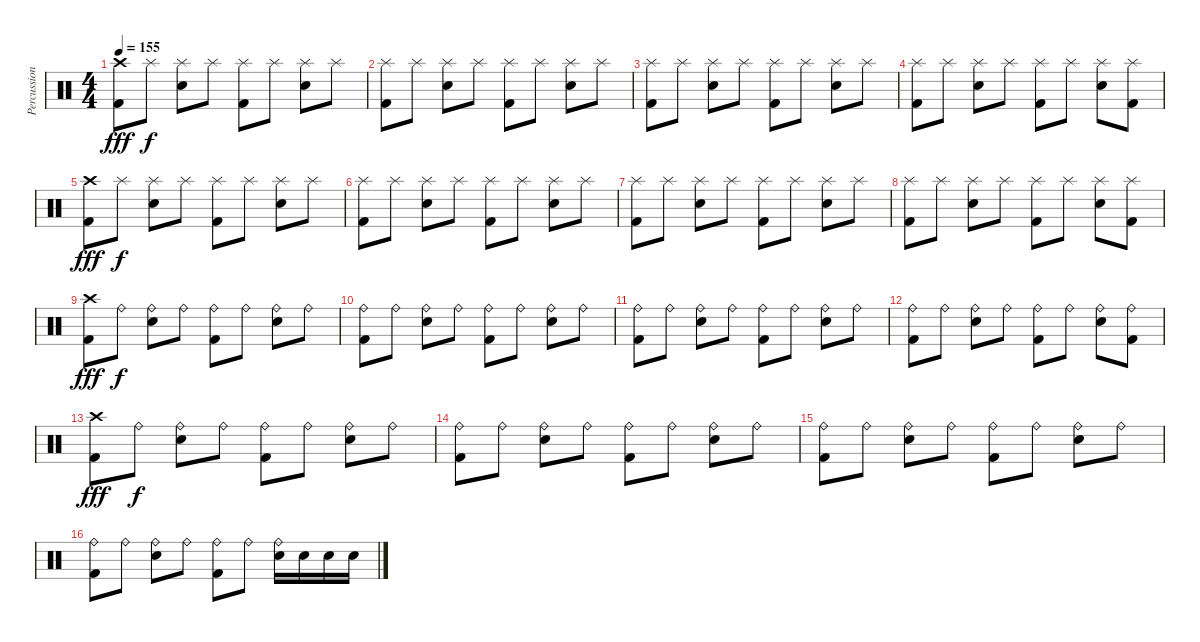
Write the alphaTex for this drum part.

\track ("Percussion" "Percussion") {instrument percussion}
\staff {score}
\articulation defaults
\ts (4 4)
\tempo 155
\clef neutral
\ks c
("Crash high (hit)" "Kick (hit) 2").8{dy fff} "Splash (hit)".8{dy f} ("Splash (hit)" "Electric Snare (hit)").8 "Splash (hit)".8 ("Splash (hit)" "Kick (hit) 2").8 "Splash (hit)".8 ("Splash (hit)" "Electric Snare (hit)").8 "Splash (hit)".8 |
("Splash (hit)" "Kick (hit) 2").8 "Splash (hit)".8 ("Splash (hit)" "Electric Snare (hit)").8 "Splash (hit)".8 ("Splash (hit)" "Kick (hit) 2").8 "Splash (hit)".8 ("Splash (hit)" "Electric Snare (hit)").8 "Splash (hit)".8 |
("Splash (hit)" "Kick (hit) 2").8 "Splash (hit)".8 ("Splash (hit)" "Electric Snare (hit)").8 "Splash (hit)".8 ("Splash (hit)" "Kick (hit) 2").8 "Splash (hit)".8 ("Splash (hit)" "Electric Snare (hit)").8 "Splash (hit)".8 |
("Splash (hit)" "Kick (hit) 2").8 "Splash (hit)".8 ("Splash (hit)" "Electric Snare (hit)").8 "Splash (hit)".8 ("Splash (hit)" "Kick (hit) 2").8 "Splash (hit)".8 ("Splash (hit)" "Electric Snare (hit)").8 ("Splash (hit)" "Kick (hit) 2").8 |
("Crash high (hit)" "Kick (hit) 2").8{dy fff} "Splash (hit)".8{dy f} ("Splash (hit)" "Electric Snare (hit)").8 "Splash (hit)".8 ("Splash (hit)" "Kick (hit) 2").8 "Splash (hit)".8 ("Splash (hit)" "Electric Snare (hit)").8 "Splash (hit)".8 |
("Splash (hit)" "Kick (hit) 2").8 "Splash (hit)".8 ("Splash (hit)" "Electric Snare (hit)").8 "Splash (hit)".8 ("Splash (hit)" "Kick (hit) 2").8 "Splash (hit)".8 ("Splash (hit)" "Electric Snare (hit)").8 "Splash (hit)".8 |
("Splash (hit)" "Kick (hit) 2").8 "Splash (hit)".8 ("Splash (hit)" "Electric Snare (hit)").8 "Splash (hit)".8 ("Splash (hit)" "Kick (hit) 2").8 "Splash (hit)".8 ("Splash (hit)" "Electric Snare (hit)").8 "Splash (hit)".8 |
("Splash (hit)" "Kick (hit) 2").8 "Splash (hit)".8 ("Splash (hit)" "Electric Snare (hit)").8 "Splash (hit)".8 ("Splash (hit)" "Kick (hit) 2").8 "Splash (hit)".8 ("Splash (hit)" "Electric Snare (hit)").8 ("Splash (hit)" "Kick (hit) 2").8 |
("Crash high (hit)" "Kick (hit) 2").8{dy fff} "Ride (bell)".8{dy f} ("Ride (bell)" "Electric Snare (hit)").8 "Ride (bell)".8 ("Ride (bell)" "Kick (hit) 2").8 "Ride (bell)".8 ("Ride (bell)" "Electric Snare (hit)").8 "Ride (bell)".8 |
("Ride (bell)" "Kick (hit) 2").8 "Ride (bell)".8 ("Ride (bell)" "Electric Snare (hit)").8 "Ride (bell)".8 ("Ride (bell)" "Kick (hit) 2").8 "Ride (bell)".8 ("Ride (bell)" "Electric Snare (hit)").8 "Ride (bell)".8 |
("Ride (bell)" "Kick (hit) 2").8 "Ride (bell)".8 ("Ride (bell)" "Electric Snare (hit)").8 "Ride (bell)".8 ("Ride (bell)" "Kick (hit) 2").8 "Ride (bell)".8 ("Ride (bell)" "Electric Snare (hit)").8 "Ride (bell)".8 |
("Ride (bell)" "Kick (hit) 2").8 "Ride (bell)".8 ("Ride (bell)" "Electric Snare (hit)").8 "Ride (bell)".8 ("Ride (bell)" "Kick (hit) 2").8 "Ride (bell)".8 ("Ride (bell)" "Electric Snare (hit)").8 ("Ride (bell)" "Kick (hit) 2").8 |
("Crash high (hit)" "Kick (hit) 2").8{dy fff} "Ride (bell)".8{dy f} ("Ride (bell)" "Electric Snare (hit)").8 "Ride (bell)".8 ("Ride (bell)" "Kick (hit) 2").8 "Ride (bell)".8 ("Ride (bell)" "Electric Snare (hit)").8 "Ride (bell)".8 |
("Ride (bell)" "Kick (hit) 2").8 "Ride (bell)".8 ("Ride (bell)" "Electric Snare (hit)").8 "Ride (bell)".8 ("Ride (bell)" "Kick (hit) 2").8 "Ride (bell)".8 ("Ride (bell)" "Electric Snare (hit)").8 "Ride (bell)".8 |
("Ride (bell)" "Kick (hit) 2").8 "Ride (bell)".8 ("Ride (bell)" "Electric Snare (hit)").8 "Ride (bell)".8 ("Ride (bell)" "Kick (hit) 2").8 "Ride (bell)".8 ("Ride (bell)" "Electric Snare (hit)").8 "Ride (bell)".8 |
("Ride (bell)" "Kick (hit) 2").8 "Ride (bell)".8 ("Ride (bell)" "Electric Snare (hit)").8 "Ride (bell)".8 ("Ride (bell)" "Kick (hit) 2").8 "Ride (bell)".8 ("Ride (bell)" "Electric Snare (hit)").16 "Electric Snare (hit)".16 "Electric Snare (hit)".16 "Electric Snare (hit)".16
